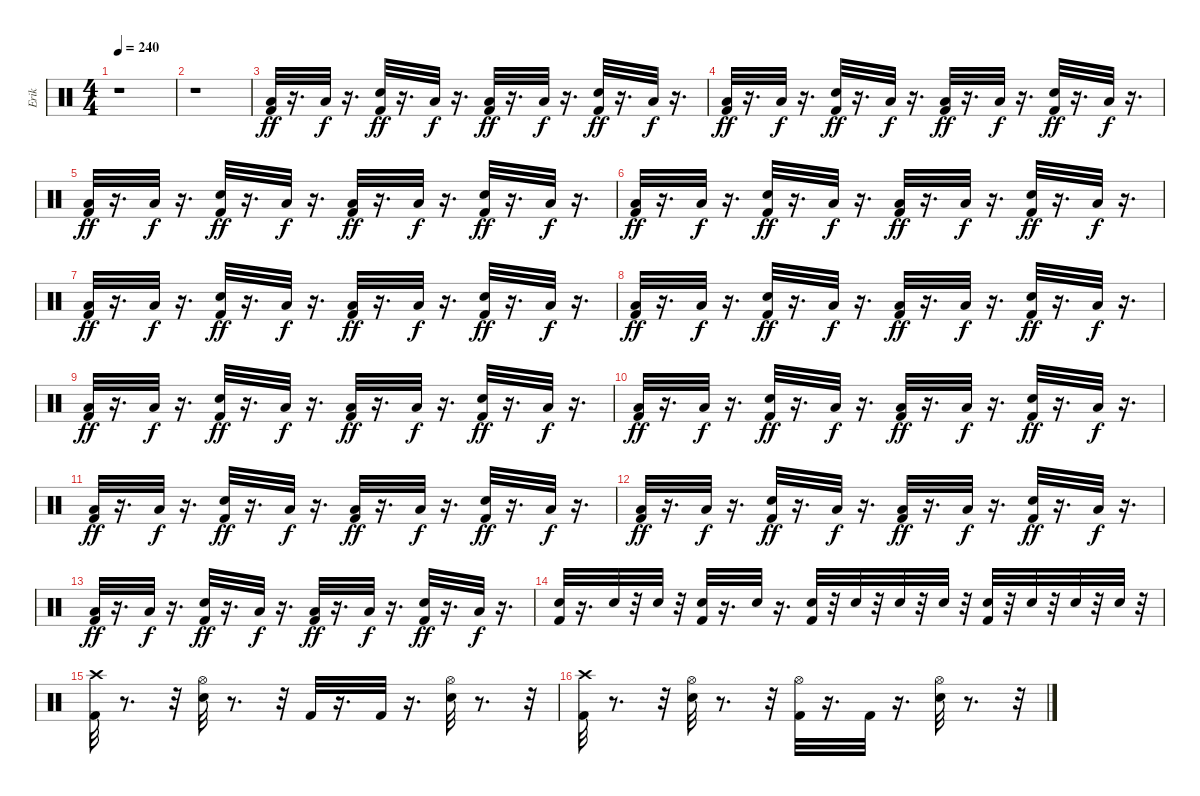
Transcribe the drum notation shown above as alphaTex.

\track ("Erik" "Erik") {instrument percussion}
\staff {score}
\articulation defaults
\ts (4 4)
\tempo 240
\clef neutral
\ks c
r.1{dy ff} |
r.1 |
("Kick (hit) 2" "Low Floor Tom (hit)").32 r.16{d} "Low Floor Tom (hit)".32{dy f} r.16{d} ("Kick (hit) 2" "Electric Snare (hit)").32{dy ff} r.16{d} "Low Floor Tom (hit)".32{dy f} r.16{d} ("Kick (hit) 2" "Low Floor Tom (hit)").32{dy ff} r.16{d} "Low Floor Tom (hit)".32{dy f} r.16{d} ("Kick (hit) 2" "Electric Snare (hit)").32{dy ff} r.16{d} "Low Floor Tom (hit)".32{dy f} r.16{d} |
("Kick (hit) 2" "Low Floor Tom (hit)").32{dy ff} r.16{d} "Low Floor Tom (hit)".32{dy f} r.16{d} ("Kick (hit) 2" "Electric Snare (hit)").32{dy ff} r.16{d} "Low Floor Tom (hit)".32{dy f} r.16{d} ("Kick (hit) 2" "Low Floor Tom (hit)").32{dy ff} r.16{d} "Low Floor Tom (hit)".32{dy f} r.16{d} ("Kick (hit) 2" "Electric Snare (hit)").32{dy ff} r.16{d} "Low Floor Tom (hit)".32{dy f} r.16{d} |
("Kick (hit) 2" "Low Floor Tom (hit)").32{dy ff} r.16{d} "Low Floor Tom (hit)".32{dy f} r.16{d} ("Kick (hit) 2" "Electric Snare (hit)").32{dy ff} r.16{d} "Low Floor Tom (hit)".32{dy f} r.16{d} ("Kick (hit) 2" "Low Floor Tom (hit)").32{dy ff} r.16{d} "Low Floor Tom (hit)".32{dy f} r.16{d} ("Kick (hit) 2" "Electric Snare (hit)").32{dy ff} r.16{d} "Low Floor Tom (hit)".32{dy f} r.16{d} |
("Kick (hit) 2" "Low Floor Tom (hit)").32{dy ff} r.16{d} "Low Floor Tom (hit)".32{dy f} r.16{d} ("Kick (hit) 2" "Electric Snare (hit)").32{dy ff} r.16{d} "Low Floor Tom (hit)".32{dy f} r.16{d} ("Kick (hit) 2" "Low Floor Tom (hit)").32{dy ff} r.16{d} "Low Floor Tom (hit)".32{dy f} r.16{d} ("Kick (hit) 2" "Electric Snare (hit)").32{dy ff} r.16{d} "Low Floor Tom (hit)".32{dy f} r.16{d} |
("Kick (hit) 2" "Low Floor Tom (hit)").32{dy ff} r.16{d} "Low Floor Tom (hit)".32{dy f} r.16{d} ("Kick (hit) 2" "Electric Snare (hit)").32{dy ff} r.16{d} "Low Floor Tom (hit)".32{dy f} r.16{d} ("Kick (hit) 2" "Low Floor Tom (hit)").32{dy ff} r.16{d} "Low Floor Tom (hit)".32{dy f} r.16{d} ("Kick (hit) 2" "Electric Snare (hit)").32{dy ff} r.16{d} "Low Floor Tom (hit)".32{dy f} r.16{d} |
("Kick (hit) 2" "Low Floor Tom (hit)").32{dy ff} r.16{d} "Low Floor Tom (hit)".32{dy f} r.16{d} ("Kick (hit) 2" "Electric Snare (hit)").32{dy ff} r.16{d} "Low Floor Tom (hit)".32{dy f} r.16{d} ("Kick (hit) 2" "Low Floor Tom (hit)").32{dy ff} r.16{d} "Low Floor Tom (hit)".32{dy f} r.16{d} ("Kick (hit) 2" "Electric Snare (hit)").32{dy ff} r.16{d} "Low Floor Tom (hit)".32{dy f} r.16{d} |
("Kick (hit) 2" "Low Floor Tom (hit)").32{dy ff} r.16{d} "Low Floor Tom (hit)".32{dy f} r.16{d} ("Kick (hit) 2" "Electric Snare (hit)").32{dy ff} r.16{d} "Low Floor Tom (hit)".32{dy f} r.16{d} ("Kick (hit) 2" "Low Floor Tom (hit)").32{dy ff} r.16{d} "Low Floor Tom (hit)".32{dy f} r.16{d} ("Kick (hit) 2" "Electric Snare (hit)").32{dy ff} r.16{d} "Low Floor Tom (hit)".32{dy f} r.16{d} |
("Kick (hit) 2" "Low Floor Tom (hit)").32{dy ff} r.16{d} "Low Floor Tom (hit)".32{dy f} r.16{d} ("Kick (hit) 2" "Electric Snare (hit)").32{dy ff} r.16{d} "Low Floor Tom (hit)".32{dy f} r.16{d} ("Kick (hit) 2" "Low Floor Tom (hit)").32{dy ff} r.16{d} "Low Floor Tom (hit)".32{dy f} r.16{d} ("Kick (hit) 2" "Electric Snare (hit)").32{dy ff} r.16{d} "Low Floor Tom (hit)".32{dy f} r.16{d} |
("Kick (hit) 2" "Low Floor Tom (hit)").32{dy ff} r.16{d} "Low Floor Tom (hit)".32{dy f} r.16{d} ("Kick (hit) 2" "Electric Snare (hit)").32{dy ff} r.16{d} "Low Floor Tom (hit)".32{dy f} r.16{d} ("Kick (hit) 2" "Low Floor Tom (hit)").32{dy ff} r.16{d} "Low Floor Tom (hit)".32{dy f} r.16{d} ("Kick (hit) 2" "Electric Snare (hit)").32{dy ff} r.16{d} "Low Floor Tom (hit)".32{dy f} r.16{d} |
("Kick (hit) 2" "Low Floor Tom (hit)").32{dy ff} r.16{d} "Low Floor Tom (hit)".32{dy f} r.16{d} ("Kick (hit) 2" "Electric Snare (hit)").32{dy ff} r.16{d} "Low Floor Tom (hit)".32{dy f} r.16{d} ("Kick (hit) 2" "Low Floor Tom (hit)").32{dy ff} r.16{d} "Low Floor Tom (hit)".32{dy f} r.16{d} ("Kick (hit) 2" "Electric Snare (hit)").32{dy ff} r.16{d} "Low Floor Tom (hit)".32{dy f} r.16{d} |
("Kick (hit) 2" "Low Floor Tom (hit)").32{dy ff} r.16{d} "Low Floor Tom (hit)".32{dy f} r.16{d} ("Kick (hit) 2" "Electric Snare (hit)").32{dy ff} r.16{d} "Low Floor Tom (hit)".32{dy f} r.16{d} ("Kick (hit) 2" "Low Floor Tom (hit)").32{dy ff} r.16{d} "Low Floor Tom (hit)".32{dy f} r.16{d} ("Kick (hit) 2" "Electric Snare (hit)").32{dy ff} r.16{d} "Low Floor Tom (hit)".32{dy f} r.16{d} |
("Kick (hit) 2" "Electric Snare (hit)").32 r.16{d} "Electric Snare (hit)".32 r.32 "Electric Snare (hit)".32 r.32 ("Electric Snare (hit)" "Kick (hit) 2").32 r.16{d} "Electric Snare (hit)".32 r.16{d} ("Electric Snare (hit)" "Kick (hit) 2").32 r.32 "Electric Snare (hit)".32 r.32 "Electric Snare (hit)".32 r.32 "Electric Snare (hit)".32 r.32 ("Electric Snare (hit)" "Kick (hit) 2").32 r.32 "Electric Snare (hit)".32 r.32 "Electric Snare (hit)".32 r.32 "Electric Snare (hit)".32 r.32 |
("Kick (hit) 2" "Crash high (hit)").32 r.8{d} r.32 ("Electric Snare (hit)" "Hi-Hat (open)").32 r.8{d} r.32 "Kick (hit) 2".32 r.16{d} "Kick (hit) 2".32 r.16{d} ("Electric Snare (hit)" "Hi-Hat (open)").32 r.8{d} r.32 |
("Kick (hit) 2" "Crash high (hit)").32 r.8{d} r.32 ("Electric Snare (hit)" "Hi-Hat (open)").32 r.8{d} r.32 ("Kick (hit) 2" "Hi-Hat (open)").32 r.16{d} "Kick (hit) 2".32 r.16{d} ("Electric Snare (hit)" "Hi-Hat (open)").32 r.8{d} r.32
